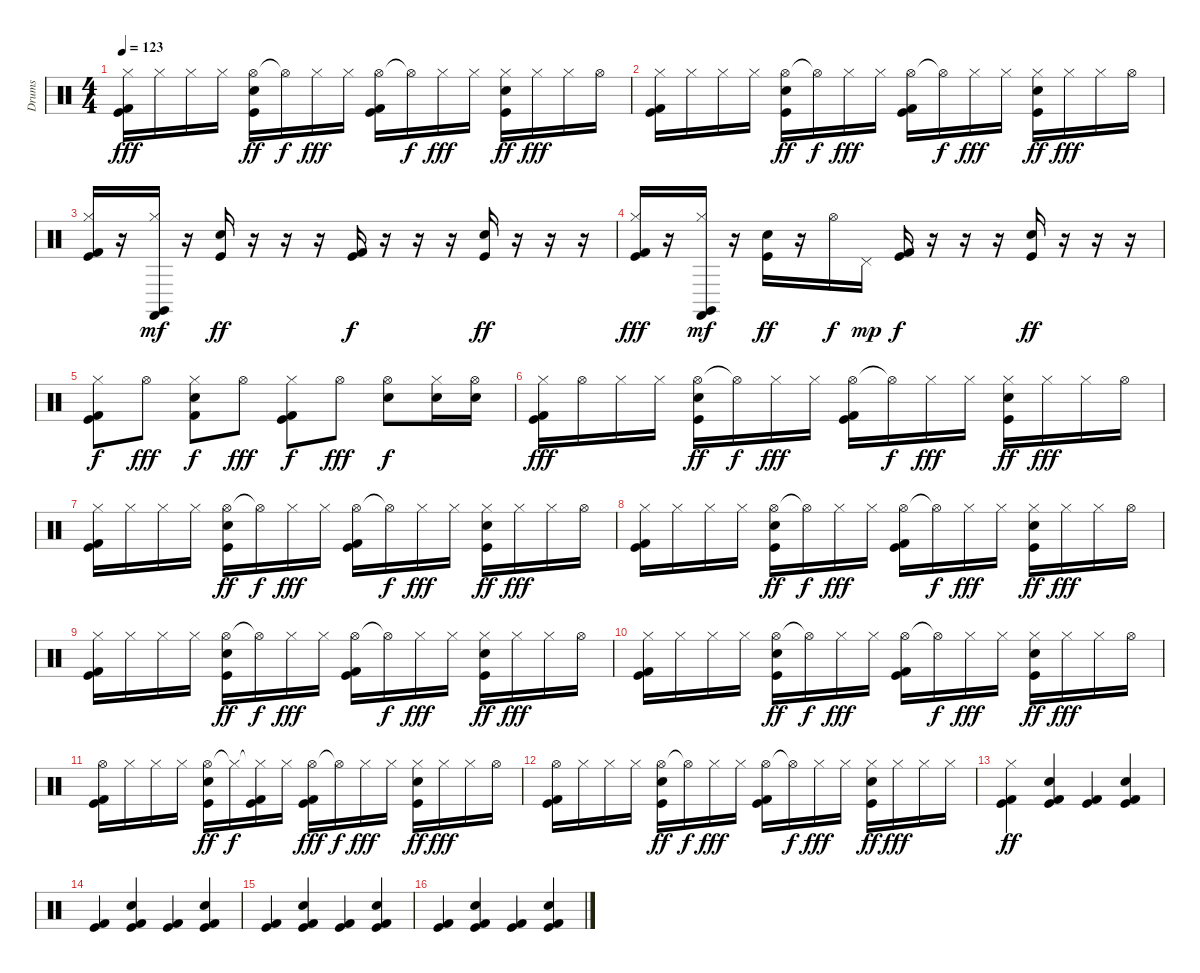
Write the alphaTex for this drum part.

\track ("Drums" "Drums") {instrument percussion}
\staff {score}
\articulation defaults
\ts (4 4)
\tempo 123
\clef neutral
\ks c
("Hi-Hat (closed)" "Kick (hit) 2" "Kick (hit)").16{dy fff} "Hi-Hat (closed)".16 "Hi-Hat (closed)".16 "Hi-Hat (closed)".16 ("Hi-Hat (open)" "Snare (hit) 2" "Kick (hit)").16{dy ff} "Hi-Hat (open)"{t}.16{dy f} "Hi-Hat (closed)".16{dy fff} "Hi-Hat (closed)".16 ("Hi-Hat (open)" "Kick (hit) 2" "Kick (hit)").16 "Hi-Hat (open)"{t}.16{dy f} "Hi-Hat (closed)".16{dy fff} "Hi-Hat (closed)".16 ("Hi-Hat (closed)" "Snare (hit) 2" "Kick (hit)").16{dy ff} "Hi-Hat (closed)".16{dy fff} "Hi-Hat (closed)".16 "Hi-Hat (open)".16 |
("Hi-Hat (closed)" "Kick (hit) 2" "Kick (hit)").16 "Hi-Hat (closed)".16 "Hi-Hat (closed)".16 "Hi-Hat (closed)".16 ("Hi-Hat (open)" "Snare (hit) 2" "Kick (hit)").16{dy ff} "Hi-Hat (open)"{t}.16{dy f} "Hi-Hat (closed)".16{dy fff} "Hi-Hat (closed)".16 ("Hi-Hat (open)" "Kick (hit) 2" "Kick (hit)").16 "Hi-Hat (open)"{t}.16{dy f} "Hi-Hat (closed)".16{dy fff} "Hi-Hat (closed)".16 ("Hi-Hat (closed)" "Snare (hit) 2" "Kick (hit)").16{dy ff} "Hi-Hat (closed)".16{dy fff} "Hi-Hat (closed)".16 "Hi-Hat (open)".16 |
("Hi-Hat (closed)" "Kick (hit) 2" "Kick (hit)").16 r.16 ("Castanets (hit)" "Hi-Hat (closed)" "Claves (hit)").16{dy mf} r.16 ("Snare (hit) 2" "Kick (hit)").16{dy ff} r.16 r.16 r.16 ("Kick (hit) 2" "Kick (hit)").16{dy f} r.16 r.16 r.16 ("Snare (hit) 2" "Kick (hit)").16{dy ff} r.16 r.16 r.16 |
("Hi-Hat (closed)" "Kick (hit) 2" "Kick (hit)").16{dy fff} r.16 ("Castanets (hit)" "Hi-Hat (closed)" "Claves (hit)").16{dy mf} r.16 ("Snare (hit) 2" "Kick (hit)").16{dy ff} r.16 "Hi-Hat (open)".16{dy f} "Pedal Hi-Hat (hit)".16{dy mp} ("Kick (hit) 2" "Kick (hit)").16{dy f} r.16 r.16 r.16 ("Snare (hit) 2" "Kick (hit)").16{dy ff} r.16 r.16 r.16 |
("Hi-Hat (closed)" "Kick (hit)" "Kick (hit) 2").8{dy f} "Hi-Hat (open)".8{dy fff} ("Hi-Hat (closed)" "Snare (hit) 2" "Kick (hit) 2").8{dy f} "Hi-Hat (open)".8{dy fff} ("Hi-Hat (closed)" "Kick (hit)" "Kick (hit) 2").8{dy f} "Hi-Hat (open)".8{dy fff} ("Hi-Hat (open)" "Snare (hit) 2").8{dy f} ("Hi-Hat (closed)" "Snare (hit) 2").16 ("Hi-Hat (open)" "Snare (hit) 2").16 |
("Hi-Hat (closed)" "Kick (hit) 2" "Kick (hit)").16{dy fff} "Hi-Hat (open)".16 "Hi-Hat (closed)".16 "Hi-Hat (closed)".16 ("Hi-Hat (open)" "Snare (hit) 2" "Kick (hit)").16{dy ff} "Hi-Hat (open)"{t}.16{dy f} "Hi-Hat (closed)".16{dy fff} "Hi-Hat (closed)".16 ("Hi-Hat (open)" "Kick (hit) 2" "Kick (hit)").16 "Hi-Hat (open)"{t}.16{dy f} "Hi-Hat (closed)".16{dy fff} "Hi-Hat (closed)".16 ("Hi-Hat (closed)" "Snare (hit) 2" "Kick (hit)").16{dy ff} "Hi-Hat (closed)".16{dy fff} "Hi-Hat (closed)".16 "Hi-Hat (open)".16 |
("Hi-Hat (closed)" "Kick (hit) 2" "Kick (hit)").16 "Hi-Hat (closed)".16 "Hi-Hat (closed)".16 "Hi-Hat (closed)".16 ("Hi-Hat (open)" "Snare (hit) 2" "Kick (hit)").16{dy ff} "Hi-Hat (open)"{t}.16{dy f} "Hi-Hat (closed)".16{dy fff} "Hi-Hat (closed)".16 ("Hi-Hat (open)" "Kick (hit) 2" "Kick (hit)").16 "Hi-Hat (open)"{t}.16{dy f} "Hi-Hat (closed)".16{dy fff} "Hi-Hat (closed)".16 ("Hi-Hat (closed)" "Snare (hit) 2" "Kick (hit)").16{dy ff} "Hi-Hat (closed)".16{dy fff} "Hi-Hat (closed)".16 "Hi-Hat (open)".16 |
("Hi-Hat (closed)" "Kick (hit) 2" "Kick (hit)").16 "Hi-Hat (closed)".16 "Hi-Hat (closed)".16 "Hi-Hat (closed)".16 ("Hi-Hat (open)" "Snare (hit) 2" "Kick (hit)").16{dy ff} "Hi-Hat (open)"{t}.16{dy f} "Hi-Hat (closed)".16{dy fff} "Hi-Hat (closed)".16 ("Hi-Hat (open)" "Kick (hit) 2" "Kick (hit)").16 "Hi-Hat (open)"{t}.16{dy f} "Hi-Hat (closed)".16{dy fff} "Hi-Hat (closed)".16 ("Hi-Hat (closed)" "Snare (hit) 2" "Kick (hit)").16{dy ff} "Hi-Hat (closed)".16{dy fff} "Hi-Hat (closed)".16 "Hi-Hat (open)".16 |
("Hi-Hat (closed)" "Kick (hit) 2" "Kick (hit)").16 "Hi-Hat (closed)".16 "Hi-Hat (closed)".16 "Hi-Hat (closed)".16 ("Hi-Hat (open)" "Snare (hit) 2" "Kick (hit)").16{dy ff} "Hi-Hat (open)"{t}.16{dy f} "Hi-Hat (closed)".16{dy fff} "Hi-Hat (closed)".16 ("Hi-Hat (open)" "Kick (hit) 2" "Kick (hit)").16 "Hi-Hat (open)"{t}.16{dy f} "Hi-Hat (closed)".16{dy fff} "Hi-Hat (closed)".16 ("Hi-Hat (closed)" "Snare (hit) 2" "Kick (hit)").16{dy ff} "Hi-Hat (closed)".16{dy fff} "Hi-Hat (closed)".16 "Hi-Hat (open)".16 |
("Hi-Hat (closed)" "Kick (hit) 2" "Kick (hit)").16 "Hi-Hat (closed)".16 "Hi-Hat (closed)".16 "Hi-Hat (closed)".16 ("Hi-Hat (open)" "Snare (hit) 2" "Kick (hit)").16{dy ff} "Hi-Hat (open)"{t}.16{dy f} "Hi-Hat (closed)".16{dy fff} "Hi-Hat (closed)".16 ("Hi-Hat (open)" "Kick (hit) 2" "Kick (hit)").16 "Hi-Hat (open)"{t}.16{dy f} "Hi-Hat (closed)".16{dy fff} "Hi-Hat (closed)".16 ("Hi-Hat (closed)" "Snare (hit) 2" "Kick (hit)").16{dy ff} "Hi-Hat (closed)".16{dy fff} "Hi-Hat (closed)".16 "Hi-Hat (open)".16 |
("Hi-Hat (open)" "Kick (hit) 2" "Kick (hit)").16 "Hi-Hat (closed)".16 "Hi-Hat (closed)".16 "Hi-Hat (closed)".16 ("Hi-Hat (open)" "Snare (hit) 2" "Kick (hit)").16{dy ff} "Hi-Hat (closed)"{t}.16{dy f} ("Hi-Hat (closed)"{t} "Kick (hit)" "Kick (hit) 2").16 "Hi-Hat (closed)".16 ("Hi-Hat (open)" "Kick (hit) 2" "Kick (hit)").16{dy fff} "Hi-Hat (open)"{t}.16{dy f} "Hi-Hat (closed)".16{dy fff} "Hi-Hat (closed)".16 ("Hi-Hat (closed)" "Snare (hit) 2" "Kick (hit)").16{dy ff} "Hi-Hat (closed)".16{dy fff} "Hi-Hat (closed)".16 "Hi-Hat (open)".16 |
("Hi-Hat (open)" "Kick (hit) 2" "Kick (hit)").16 "Hi-Hat (closed)".16 "Hi-Hat (closed)".16 "Hi-Hat (closed)".16 ("Hi-Hat (open)" "Snare (hit) 2" "Kick (hit)").16{dy ff} "Hi-Hat (open)"{t}.16{dy f} "Hi-Hat (closed)".16{dy fff} "Hi-Hat (closed)".16 ("Hi-Hat (open)" "Kick (hit) 2" "Kick (hit)").16 "Hi-Hat (open)"{t}.16{dy f} "Hi-Hat (closed)".16{dy fff} "Hi-Hat (closed)".16 ("Hi-Hat (closed)" "Snare (hit) 2" "Kick (hit)").16{dy ff} "Hi-Hat (closed)".16{dy fff} "Hi-Hat (closed)".16 "Hi-Hat (closed)".16 |
("Hi-Hat (closed)" "Kick (hit)" "Kick (hit) 2").4{dy ff} ("Snare (hit) 2" "Kick (hit)" "Kick (hit) 2").4 ("Kick (hit)" "Kick (hit) 2").4 ("Snare (hit) 2" "Kick (hit)" "Kick (hit) 2").4 |
("Kick (hit)" "Kick (hit) 2").4 ("Snare (hit) 2" "Kick (hit)" "Kick (hit) 2").4 ("Kick (hit)" "Kick (hit) 2").4 ("Snare (hit) 2" "Kick (hit)" "Kick (hit) 2").4 |
("Kick (hit)" "Kick (hit) 2").4 ("Snare (hit) 2" "Kick (hit)" "Kick (hit) 2").4 ("Kick (hit)" "Kick (hit) 2").4 ("Snare (hit) 2" "Kick (hit)" "Kick (hit) 2").4 |
("Kick (hit)" "Kick (hit) 2").4 ("Snare (hit) 2" "Kick (hit)" "Kick (hit) 2").4 ("Kick (hit)" "Kick (hit) 2").4 ("Snare (hit) 2" "Kick (hit)" "Kick (hit) 2").4
